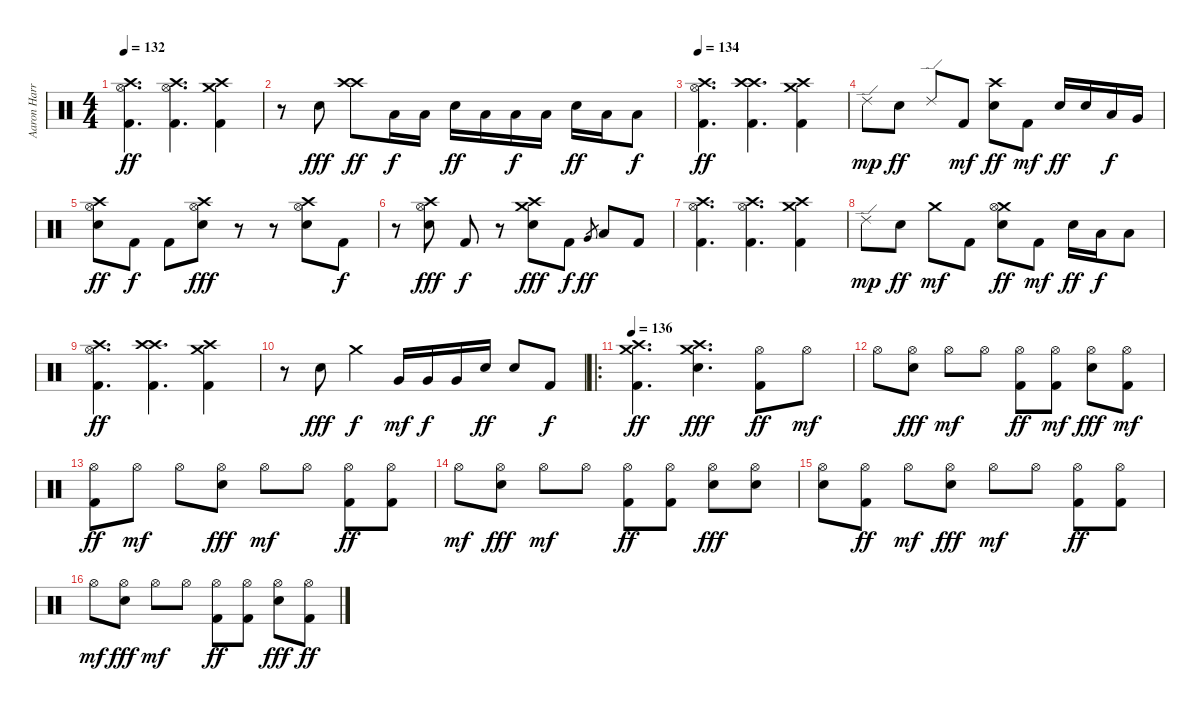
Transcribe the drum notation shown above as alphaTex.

\track ("Aaron Harris" "Aaron Harr") {instrument percussion}
\staff {score}
\articulation defaults
\ts (4 4)
\tempo 132
\clef neutral
\ks c
("Crash high (hit)" "Hi-Hat (open)" "Kick (hit) 2").4{d dy ff} ("Crash high (hit)" "Hi-Hat (open)" "Kick (hit) 2").4{d} ("Crash medium (hit)" "Crash high (hit)" "Kick (hit) 2").4 |
r.8 "Electric Snare (hit)".8{dy fff} ("Crash high (hit)" "Crash high (hit)").8{dy ff} "Low Tom (hit)".16{dy f} "Low Tom (hit)".16 "Electric Snare (hit)".16{dy ff} "Low Tom (hit)".16 "Low Tom (hit)".16{dy f} "Low Tom (hit)".16 "Electric Snare (hit)".16{dy ff} "Low Tom (hit)".16 "Low Tom (hit)".8{dy f} |
\tempo 134
("Crash high (hit)" "Hi-Hat (open)" "Kick (hit) 2").4{d dy ff} ("Crash high (hit)" "Crash high (hit)" "Kick (hit) 2").4{d} ("Crash medium (hit)" "Crash high (hit)" "Kick (hit) 2").4 |
"Ride (edge) 2".8{dy mp} "Electric Snare (hit)".8{dy ff} "Ride (edge) 2".8 "Kick (hit) 2".8{dy mf} ("Crash high (hit)" "Electric Snare (hit)").8{dy ff} "Kick (hit) 2".8{dy mf} "Electric Snare (hit)".16{dy ff} "Electric Snare (hit)".16 "Low Tom (hit)".16{dy f} "Very Low Tom (hit)".16 |
("Crash high (hit)" "Hi-Hat (open)" "Electric Snare (hit)").8{dy ff} "Kick (hit) 2".8{dy f} "Kick (hit) 2".8 ("Crash high (hit)" "Hi-Hat (open)" "Electric Snare (hit)").8{dy fff} r.8 r.8 ("Crash high (hit)" "Hi-Hat (open)" "Electric Snare (hit)").8 "Kick (hit) 2".8{dy f} |
r.8 ("Crash high (hit)" "Hi-Hat (open)" "Electric Snare (hit)").8{dy fff} "Kick (hit) 2".8{dy f} r.8 ("Crash medium (hit)" "Crash high (hit)" "Electric Snare (hit)").8{dy fff} "Kick (hit) 2".8{dy f} "Very Low Tom (hit)".8{gr dy ff} "Low Tom (hit)".8 "Kick (hit) 2".8 |
("Crash high (hit)" "Hi-Hat (open)" "Kick (hit) 2").4{d} ("Crash high (hit)" "Hi-Hat (open)" "Kick (hit) 2").4{d} ("Crash medium (hit)" "Crash high (hit)" "Kick (hit) 2").4 |
"Ride (edge) 2".8{dy mp} "Electric Snare (hit)".8{dy ff} "Crash medium (hit)".8{dy mf} "Kick (hit) 2".8 ("Crash medium (hit)" "Hi-Hat (open)" "Electric Snare (hit)").8{dy ff} "Kick (hit) 2".8{dy mf} "Electric Snare (hit)".16{dy ff} "Low Tom (hit)".16{dy f} "Low Floor Tom (hit)".8 |
("Crash high (hit)" "Hi-Hat (open)" "Kick (hit) 2").4{d dy ff} ("Crash high (hit)" "Crash high (hit)" "Kick (hit) 2").4{d} ("Crash medium (hit)" "Crash high (hit)" "Kick (hit) 2").4 |
r.8 "Electric Snare (hit)".8{dy fff} "Crash medium (hit)".4{dy f} "Very Low Tom (hit)".16{dy mf} "Very Low Tom (hit)".16{dy f} "Very Low Tom (hit)".16 "Electric Snare (hit)".16{dy ff} "Electric Snare (hit)".8 "Kick (hit) 2".8{dy f} |
\ro
\tempo 136
("Crash medium (hit)" "Crash high (hit)" "Kick (hit) 2").4{d dy ff} ("Crash medium (hit)" "Crash high (hit)" "Electric Snare (hit)").4{d dy fff} ("Hi-Hat (open)" "Kick (hit) 2").8{dy ff} "Hi-Hat (open)".8{dy mf} |
"Hi-Hat (open)".8 ("Hi-Hat (open)" "Electric Snare (hit)").8{dy fff} "Hi-Hat (open)".8{dy mf} "Hi-Hat (open)".8 ("Hi-Hat (open)" "Kick (hit) 2").8{dy ff} ("Hi-Hat (open)" "Kick (hit) 2").8{dy mf} ("Hi-Hat (open)" "Electric Snare (hit)").8{dy fff} ("Hi-Hat (open)" "Kick (hit) 2").8{dy mf} |
("Hi-Hat (open)" "Kick (hit) 2").8{dy ff} "Hi-Hat (open)".8{dy mf} "Hi-Hat (open)".8 ("Hi-Hat (open)" "Electric Snare (hit)").8{dy fff} "Hi-Hat (open)".8{dy mf} "Hi-Hat (open)".8 ("Hi-Hat (open)" "Kick (hit) 2").8{dy ff} ("Hi-Hat (open)" "Kick (hit) 2").8 |
"Hi-Hat (open)".8{dy mf} ("Hi-Hat (open)" "Electric Snare (hit)").8{dy fff} "Hi-Hat (open)".8{dy mf} "Hi-Hat (open)".8 ("Hi-Hat (open)" "Kick (hit) 2").8{dy ff} ("Hi-Hat (open)" "Kick (hit) 2").8 ("Hi-Hat (open)" "Electric Snare (hit)").8{dy fff} ("Hi-Hat (open)" "Electric Snare (hit)").8 |
("Hi-Hat (open)" "Electric Snare (hit)").8 ("Hi-Hat (open)" "Kick (hit) 2").8{dy ff} "Hi-Hat (open)".8{dy mf} ("Hi-Hat (open)" "Electric Snare (hit)").8{dy fff} "Hi-Hat (open)".8{dy mf} "Hi-Hat (open)".8 ("Hi-Hat (open)" "Kick (hit) 2").8{dy ff} ("Hi-Hat (open)" "Kick (hit) 2").8 |
"Hi-Hat (open)".8{dy mf} ("Hi-Hat (open)" "Electric Snare (hit)").8{dy fff} "Hi-Hat (open)".8{dy mf} "Hi-Hat (open)".8 ("Hi-Hat (open)" "Kick (hit) 2").8{dy ff} ("Hi-Hat (open)" "Kick (hit) 2").8 ("Hi-Hat (open)" "Electric Snare (hit)").8{dy fff} ("Hi-Hat (open)" "Kick (hit) 2").8{dy ff}
